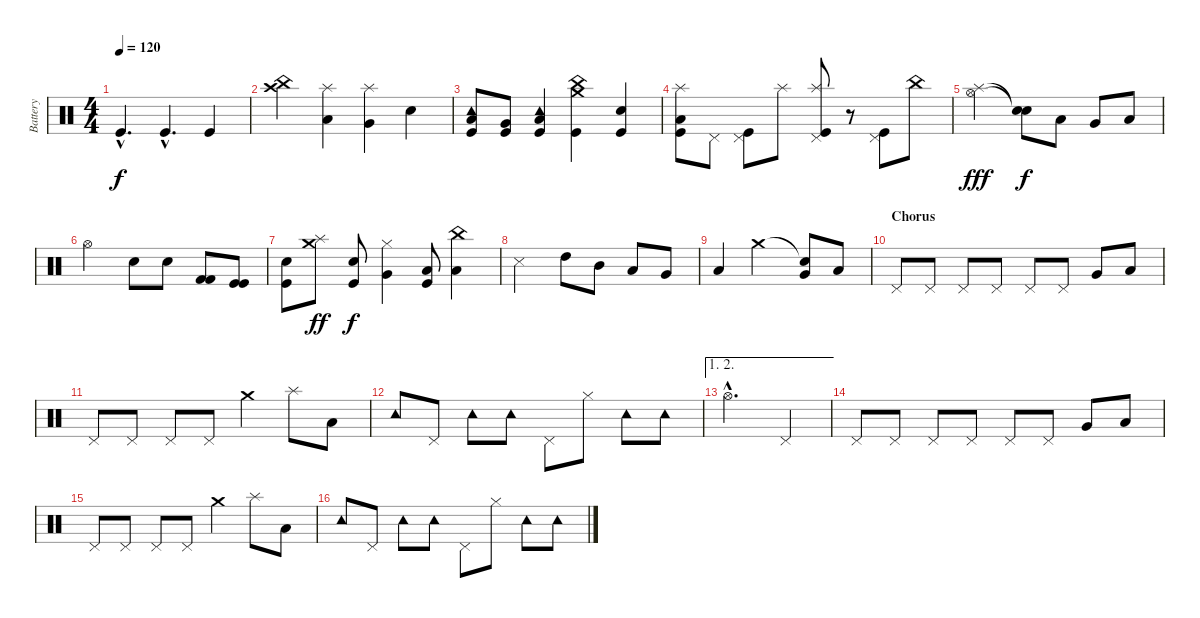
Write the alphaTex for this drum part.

\track ("Battery" "Battery") {instrument percussion}
\staff {score}
\articulation defaults
\ts (4 4)
\tempo 120
\clef neutral
\ks c "Kick (hit)"{hac}.4{d dy f} "Kick (hit)"{hac}.4{d} "Kick (hit)".4
|
("Crash high (hit)" "China (hit)").4 ("Low Tom (hit)" "Splash (hit)").4 ("Very Low Tom (hit)" "Splash (hit)").4 "Electric Snare (hit)".4 |
("Low Tom (hit)" "Tambourine (hit)" "Kick (hit)").8 ("Very Low Tom (hit)" "Kick (hit)").8 ("Low Floor Tom (hit)" "Tambourine (hit)" "Kick (hit)").4 ("China (hit)" "Crash medium (hit)" "Kick (hit)").4 ("Electric Snare (hit)" "Kick (hit)").4 |
("Splash (hit)" "Low Tom (hit)" "Kick (hit)").8 "Pedal Hi-Hat (hit)".8 ("Pedal Hi-Hat (hit)" "Kick (hit)").8 "Splash (hit)".8 ("Splash (hit)" "Pedal Hi-Hat (hit)" "Kick (hit)").8 r.8 ("Pedal Hi-Hat (hit)" "Kick (hit)").8 "China (hit)".8 |
("Splash (hit)" "Hi-Hat (open)").2{dy fff} ("Snare (hit)"{t} "Snare (hit)"{t}).8{dy f} "Low Tom (hit)".8 "Very Low Tom (hit)".8 "Low Floor Tom (hit)".8 |
"Hi-Hat (open)".2 "Electric Snare (hit)".8 "Electric Snare (hit)".8 ("Kick (hit) 2" "Kick (hit) 2").8 ("Kick (hit)" "Kick (hit)").8 |
("Electric Snare (hit)" "Kick (hit)").8 ("Splash (hit)" "Crash medium (hit)").8{dy ff} ("Electric Snare (hit)" "Kick (hit)").8{dy f} ("Hi-Hat (closed)" "Very Low Tom (hit)").4 ("Low Tom (hit)" "Kick (hit)").8 ("China (hit)" "Low Tom (hit)").4 |
"Snare (side stick) 3".2 "High Tom (hit)".8 "Mid Tom (hit)".8 "Low Tom (hit)".8 "Very Low Tom (hit)".8 |
"Low Floor Tom (hit)".4 "Crash medium (hit)".2 ("Snare (hit)"{t} "Very Low Tom (hit)").8 "Low Floor Tom (hit)".8 |
\section ("" "Chorus")
"Pedal Hi-Hat (hit)".8 "Pedal Hi-Hat (hit)".8 "Pedal Hi-Hat (hit)".8 "Pedal Hi-Hat (hit)".8 "Pedal Hi-Hat (hit)".8 "Pedal Hi-Hat (hit)".8 "Very Low Tom (hit)".8 "Low Floor Tom (hit)".8 |
"Pedal Hi-Hat (hit)".8 "Pedal Hi-Hat (hit)".8 "Pedal Hi-Hat (hit)".8 "Pedal Hi-Hat (hit)".8 "Crash medium (hit)".4 "Splash (hit)".8 "Low Floor Tom (hit)".8 |
"Tambourine (hit)".8 "Pedal Hi-Hat (hit)".8 "Tambourine (hit)".8 "Tambourine (hit)".8 "Pedal Hi-Hat (hit)".8 "Hi-Hat (closed)".8 "Tambourine (hit)".8 "Tambourine (hit)".8 |
\ae (1 2)
"Hi-Hat (open)"{hac}.2{d} "Pedal Hi-Hat (hit)".4 |
"Pedal Hi-Hat (hit)".8 "Pedal Hi-Hat (hit)".8 "Pedal Hi-Hat (hit)".8 "Pedal Hi-Hat (hit)".8 "Pedal Hi-Hat (hit)".8 "Pedal Hi-Hat (hit)".8 "Very Low Tom (hit)".8 "Low Floor Tom (hit)".8 |
"Pedal Hi-Hat (hit)".8 "Pedal Hi-Hat (hit)".8 "Pedal Hi-Hat (hit)".8 "Pedal Hi-Hat (hit)".8 "Crash medium (hit)".4 "Splash (hit)".8 "Low Floor Tom (hit)".8 |
"Tambourine (hit)".8 "Pedal Hi-Hat (hit)".8 "Tambourine (hit)".8 "Tambourine (hit)".8 "Pedal Hi-Hat (hit)".8 "Hi-Hat (closed)".8 "Tambourine (hit)".8 "Tambourine (hit)".8
